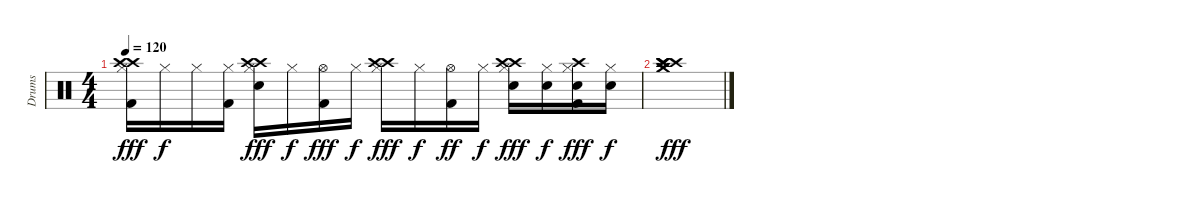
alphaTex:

\track ("Drums" "Drums") {instrument percussion}
\staff {score}
\articulation defaults
\ts (4 4)
\tempo 120
\clef neutral
\ks c
("Crash high (hit)" "Crash high (hit)" "Hi-Hat (closed)" "Kick (hit) 2").16{dy fff} "Hi-Hat (closed)".16{dy f} "Hi-Hat (closed)".16 ("Hi-Hat (closed)" "Kick (hit) 2").16 ("Crash high (hit)" "Crash high (hit)" "Snare (hit) 2" "Hi-Hat (closed)").16{dy fff} "Hi-Hat (closed)".16{dy f} ("Hi-Hat (open)" "Kick (hit) 2").16{dy fff} "Hi-Hat (closed)".16{dy f} ("Crash high (hit)" "Crash high (hit)" "Hi-Hat (closed)").16{dy fff} "Hi-Hat (closed)".16{dy f} ("Hi-Hat (open)" "Kick (hit) 2").16{dy ff} "Hi-Hat (closed)".16{dy f} ("Crash high (hit)" "Crash high (hit)" "Snare (hit) 2" "Hi-Hat (closed)").16{dy fff} ("Snare (hit) 2" "Hi-Hat (closed)").16{dy f} ("Crash high (hit)" "Snare (hit) 2" "Hi-Hat (closed)" "Kick (hit) 2").16{dy fff} ("Snare (hit) 2" "Hi-Hat (closed)").16{dy f} |
("Crash high (hit)" "Crash medium (hit)" "Crash high (hit)" "Crash high (hit)" "Crash medium (hit)" "Crash high (hit)").1{dy fff volume 6}
